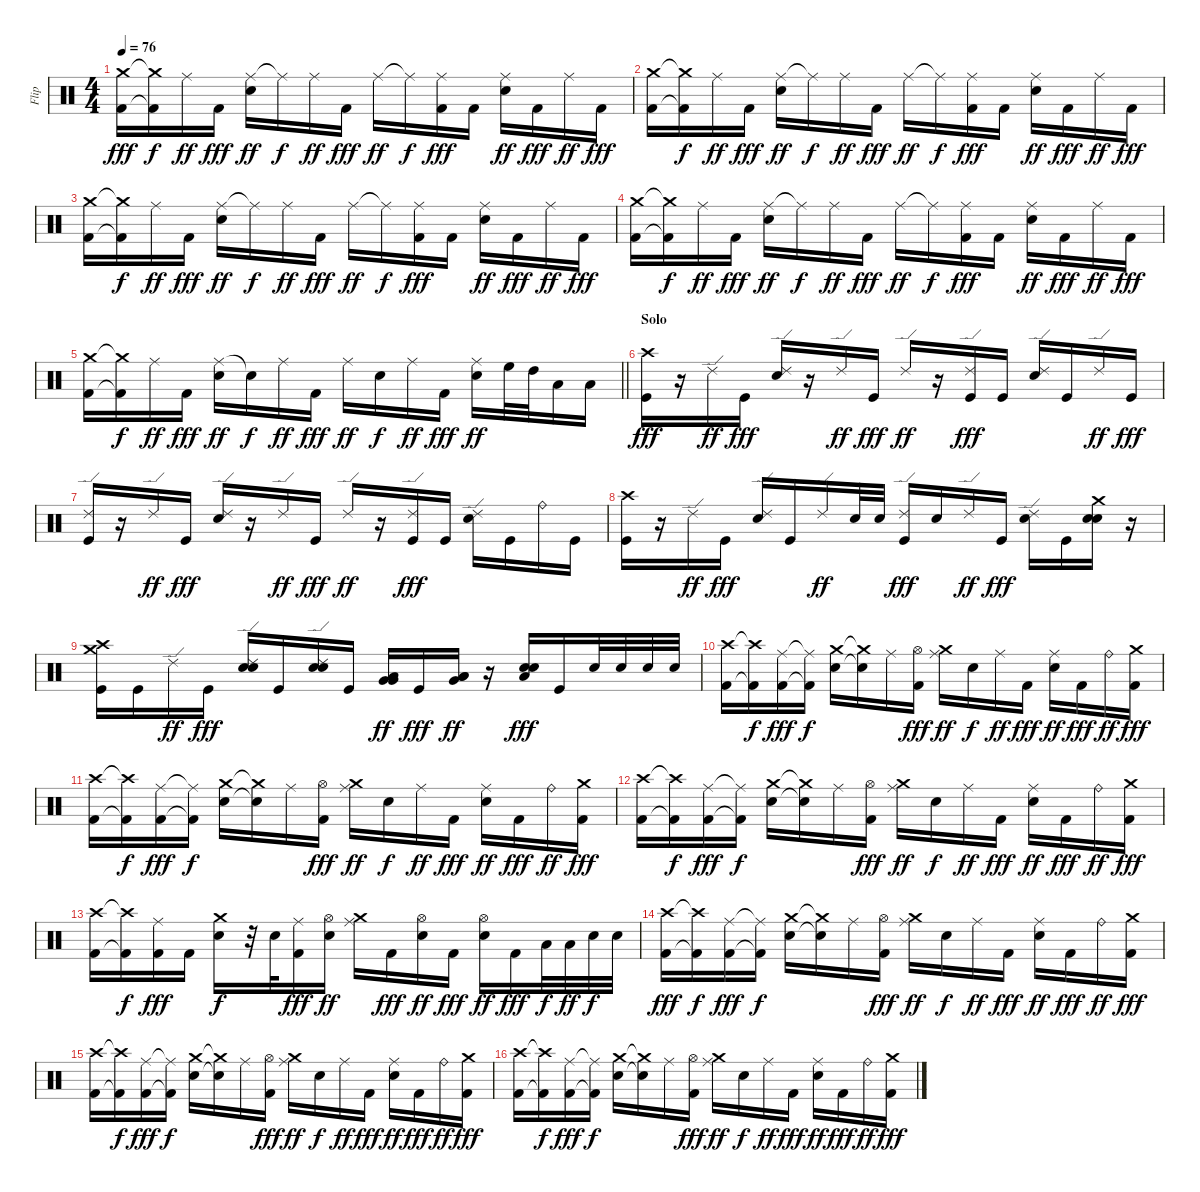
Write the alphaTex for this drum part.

\track ("Flip" "Flip") {instrument percussion}
\staff {score}
\articulation defaults
\ts (4 4)
\tempo 76
\clef neutral
\ks c
("Crash medium (hit)" "Kick (hit) 2").16{dy fff} ("Crash medium (hit)"{t} "Kick (hit) 2"{t}).16{dy f} "Ride (middle)".16{dy ff} "Kick (hit) 2".16{dy fff} ("Ride (middle)" "Snare (hit) 2").16{dy ff} "Ride (middle)"{t}.16{dy f} "Ride (middle)".16{dy ff} "Kick (hit) 2".16{dy fff} "Ride (middle)".16{dy ff} "Ride (middle)"{t}.16{dy f} ("Ride (middle)" "Kick (hit) 2").16{dy fff} "Kick (hit) 2".16 ("Ride (middle)" "Snare (hit) 2").16{dy ff} "Kick (hit) 2".16{dy fff} "Ride (middle)".16{dy ff} "Kick (hit) 2".16{dy fff} |
("Crash medium (hit)" "Kick (hit) 2").16 ("Crash medium (hit)"{t} "Kick (hit) 2"{t}).16{dy f} "Ride (middle)".16{dy ff} "Kick (hit) 2".16{dy fff} ("Ride (middle)" "Snare (hit) 2").16{dy ff} "Ride (middle)"{t}.16{dy f} "Ride (middle)".16{dy ff} "Kick (hit) 2".16{dy fff} "Ride (middle)".16{dy ff} "Ride (middle)"{t}.16{dy f} ("Ride (middle)" "Kick (hit) 2").16{dy fff} "Kick (hit) 2".16 ("Ride (middle)" "Snare (hit) 2").16{dy ff} "Kick (hit) 2".16{dy fff} "Ride (middle)".16{dy ff} "Kick (hit) 2".16{dy fff} |
("Crash medium (hit)" "Kick (hit) 2").16 ("Crash medium (hit)"{t} "Kick (hit) 2"{t}).16{dy f} "Ride (middle)".16{dy ff} "Kick (hit) 2".16{dy fff} ("Ride (middle)" "Snare (hit) 2").16{dy ff} "Ride (middle)"{t}.16{dy f} "Ride (middle)".16{dy ff} "Kick (hit) 2".16{dy fff} "Ride (middle)".16{dy ff} "Ride (middle)"{t}.16{dy f} ("Ride (middle)" "Kick (hit) 2").16{dy fff} "Kick (hit) 2".16 ("Ride (middle)" "Snare (hit) 2").16{dy ff} "Kick (hit) 2".16{dy fff} "Ride (middle)".16{dy ff} "Kick (hit) 2".16{dy fff} |
("Crash medium (hit)" "Kick (hit) 2").16 ("Crash medium (hit)"{t} "Kick (hit) 2"{t}).16{dy f} "Ride (middle)".16{dy ff} "Kick (hit) 2".16{dy fff} ("Ride (middle)" "Snare (hit) 2").16{dy ff} "Ride (middle)"{t}.16{dy f} "Ride (middle)".16{dy ff} "Kick (hit) 2".16{dy fff} "Ride (middle)".16{dy ff} "Ride (middle)"{t}.16{dy f} ("Ride (middle)" "Kick (hit) 2").16{dy fff} "Kick (hit) 2".16 ("Ride (middle)" "Snare (hit) 2").16{dy ff} "Kick (hit) 2".16{dy fff} "Ride (middle)".16{dy ff} "Kick (hit) 2".16{dy fff} |
\barLineRight lightlight
("Crash medium (hit)" "Kick (hit) 2").16 ("Crash medium (hit)"{t} "Kick (hit) 2"{t}).16{dy f} "Ride (middle)".16{dy ff} "Kick (hit) 2".16{dy fff} ("Ride (middle)" "Snare (hit) 2").16{dy ff} "Snare (hit) 2"{t}.16{dy f} "Ride (middle)".16{dy ff} "Kick (hit) 2".16{dy fff} "Ride (middle)".16{dy ff} "Snare (hit) 2".16{dy f} "Ride (middle)".16{dy ff} "Kick (hit) 2".16{dy fff} ("Ride (middle)" "Snare (hit) 2").16{dy ff} "High Floor Tom (hit)".32 "High Tom (hit)".32 "Low Tom (hit)".16 "Low Tom (hit)".16 |
\section ("" "Solo")
("Crash high (hit)" "Kick (hit)").16{dy fff} r.16 "Ride (edge) 2".16{dy ff} "Kick (hit)".16{dy fff} ("Ride (edge) 2" "Electric Snare (hit)").16 r.16 "Ride (edge) 2".16{dy ff} "Kick (hit)".16{dy fff} "Ride (edge) 2".16{dy ff} r.16 ("Ride (edge) 2" "Kick (hit)").16{dy fff} "Kick (hit)".16 ("Ride (edge) 2" "Electric Snare (hit)").16 "Kick (hit)".16 "Ride (edge) 2".16{dy ff} "Kick (hit)".16{dy fff} |
("Ride (edge) 2" "Kick (hit)").16 r.16 "Ride (edge) 2".16{dy ff} "Kick (hit)".16{dy fff} ("Ride (edge) 2" "Electric Snare (hit)").16 r.16 "Ride (edge) 2".16{dy ff} "Kick (hit)".16{dy fff} "Ride (edge) 2".16{dy ff} r.16 ("Ride (edge) 2" "Kick (hit)").16{dy fff} "Kick (hit)".16 ("Ride (edge) 2" "Electric Snare (hit)").16 "Kick (hit)".16 "Ride (bell)".16 "Kick (hit)".16 |
("Crash high (hit)" "Kick (hit)").16 r.16 "Ride (edge) 2".16{dy ff} "Kick (hit)".16{dy fff} ("Ride (edge) 2" "Electric Snare (hit)").16 "Kick (hit)".16 "Ride (edge) 2".16{dy ff} "Electric Snare (hit)".32 "Electric Snare (hit)".32 ("Ride (edge) 2" "Kick (hit)").16{dy fff} "Electric Snare (hit)".16 "Ride (edge) 2".16{dy ff} "Kick (hit)".16{dy fff} ("Ride (edge) 2" "Electric Snare (hit)").16 "Kick (hit)".16 ("Crash medium (hit)" "Electric Snare (hit)" "Electric Snare (hit)").16 r.16 |
("Crash high (hit)" "Crash medium (hit)" "Kick (hit)").16 "Kick (hit)".16 "Ride (edge) 2".16{dy ff} "Kick (hit)".16{dy fff} ("Ride (edge) 2" "Electric Snare (hit)" "Electric Snare (hit)").16 "Kick (hit)".16 ("Ride (edge) 2" "Electric Snare (hit)" "Electric Snare (hit)").16 "Kick (hit)".16 ("Very Low Tom (hit)" "Very Low Tom (hit)" "Low Floor Tom (hit)").16{dy ff} "Kick (hit)".16{dy fff} ("Low Floor Tom (hit)" "Very Low Tom (hit)" "Low Floor Tom (hit)").16{dy ff} r.16 ("Electric Snare (hit)" "Low Floor Tom (hit)" "Electric Snare (hit)").16{dy fff} "Kick (hit)".16 "Electric Snare (hit)".32 "Electric Snare (hit)".32 "Electric Snare (hit)".32 "Electric Snare (hit)".32 |
("Crash high (hit)" "Kick (hit) 2").16 ("Crash high (hit)"{t} "Kick (hit) 2"{t}).16{dy f} ("Ride (middle)" "Kick (hit) 2").16{dy fff} ("Ride (middle)"{t} "Kick (hit) 2"{t}).16{dy f} ("Crash medium (hit)" "Snare (hit) 2").16 ("Crash medium (hit)"{t} "Snare (hit) 2"{t}).16 "Ride (middle)".16 ("Hi-Hat (open)" "Kick (hit) 2").16{dy fff} ("Crash medium (hit)" "Ride (middle)").16{dy ff} "Snare (hit) 2".16{dy f} "Ride (middle)".16{dy ff} "Kick (hit) 2".16{dy fff} ("Ride (middle)" "Snare (hit) 2").16{dy ff} "Kick (hit) 2".16{dy fff} "Ride (bell)".16{dy ff} ("Crash medium (hit)" "Kick (hit) 2").16{dy fff} |
("Crash high (hit)" "Kick (hit) 2").16 ("Crash high (hit)"{t} "Kick (hit) 2"{t}).16{dy f} ("Ride (middle)" "Kick (hit) 2").16{dy fff} ("Ride (middle)"{t} "Kick (hit) 2"{t}).16{dy f} ("Crash medium (hit)" "Snare (hit) 2").16 ("Crash medium (hit)"{t} "Snare (hit) 2"{t}).16 "Ride (middle)".16 ("Hi-Hat (open)" "Kick (hit) 2").16{dy fff} ("Crash medium (hit)" "Ride (middle)").16{dy ff} "Snare (hit) 2".16{dy f} "Ride (middle)".16{dy ff} "Kick (hit) 2".16{dy fff} ("Ride (middle)" "Snare (hit) 2").16{dy ff} "Kick (hit) 2".16{dy fff} "Ride (bell)".16{dy ff} ("Crash medium (hit)" "Kick (hit) 2").16{dy fff} |
("Crash high (hit)" "Kick (hit) 2").16 ("Crash high (hit)"{t} "Kick (hit) 2"{t}).16{dy f} ("Ride (middle)" "Kick (hit) 2").16{dy fff} ("Ride (middle)"{t} "Kick (hit) 2"{t}).16{dy f} ("Crash medium (hit)" "Snare (hit) 2").16 ("Crash medium (hit)"{t} "Snare (hit) 2"{t}).16 "Ride (middle)".16 ("Hi-Hat (open)" "Kick (hit) 2").16{dy fff} ("Crash medium (hit)" "Ride (middle)").16{dy ff} "Snare (hit) 2".16{dy f} "Ride (middle)".16{dy ff} "Kick (hit) 2".16{dy fff} ("Ride (middle)" "Snare (hit) 2").16{dy ff} "Kick (hit) 2".16{dy fff} "Ride (bell)".16{dy ff} ("Crash medium (hit)" "Kick (hit) 2").16{dy fff} |
("Crash high (hit)" "Kick (hit) 2").16 ("Crash high (hit)"{t} "Kick (hit) 2"{t}).16{dy f} ("Ride (middle)" "Kick (hit) 2").16{dy fff} "Kick (hit) 2".16 ("Crash medium (hit)" "Snare (hit) 2").16{dy f} r.32 "Snare (hit) 2".32 ("Ride (middle)" "Kick (hit) 2").16{dy fff} ("Hi-Hat (open)" "Snare (hit) 2").16{dy ff} ("Crash medium (hit)" "Ride (middle)").16 "Kick (hit) 2".16{dy fff} ("Hi-Hat (open)" "Snare (hit) 2").16{dy ff} "Kick (hit) 2".16{dy fff} ("Hi-Hat (open)" "Snare (hit) 2").16{dy ff} "Kick (hit) 2".16{dy fff} "Low Tom (hit)".32{dy f} "Low Tom (hit)".32{dy ff} "Snare (hit) 2".32{dy f} "Snare (hit) 2".32 |
("Crash high (hit)" "Kick (hit) 2").16{dy fff} ("Crash high (hit)"{t} "Kick (hit) 2"{t}).16{dy f} ("Ride (middle)" "Kick (hit) 2").16{dy fff} ("Ride (middle)"{t} "Kick (hit) 2"{t}).16{dy f} ("Crash medium (hit)" "Snare (hit) 2").16 ("Crash medium (hit)"{t} "Snare (hit) 2"{t}).16 "Ride (middle)".16 ("Hi-Hat (open)" "Kick (hit) 2").16{dy fff} ("Crash medium (hit)" "Ride (middle)").16{dy ff} "Snare (hit) 2".16{dy f} "Ride (middle)".16{dy ff} "Kick (hit) 2".16{dy fff} ("Ride (middle)" "Snare (hit) 2").16{dy ff} "Kick (hit) 2".16{dy fff} "Ride (bell)".16{dy ff} ("Crash medium (hit)" "Kick (hit) 2").16{dy fff} |
("Crash high (hit)" "Kick (hit) 2").16 ("Crash high (hit)"{t} "Kick (hit) 2"{t}).16{dy f} ("Ride (middle)" "Kick (hit) 2").16{dy fff} ("Ride (middle)"{t} "Kick (hit) 2"{t}).16{dy f} ("Crash medium (hit)" "Snare (hit) 2").16 ("Crash medium (hit)"{t} "Snare (hit) 2"{t}).16 "Ride (middle)".16 ("Hi-Hat (open)" "Kick (hit) 2").16{dy fff} ("Crash medium (hit)" "Ride (middle)").16{dy ff} "Snare (hit) 2".16{dy f} "Ride (middle)".16{dy ff} "Kick (hit) 2".16{dy fff} ("Ride (middle)" "Snare (hit) 2").16{dy ff} "Kick (hit) 2".16{dy fff} "Ride (bell)".16{dy ff} ("Crash medium (hit)" "Kick (hit) 2").16{dy fff} |
("Crash high (hit)" "Kick (hit) 2").16 ("Crash high (hit)"{t} "Kick (hit) 2"{t}).16{dy f} ("Ride (middle)" "Kick (hit) 2").16{dy fff} ("Ride (middle)"{t} "Kick (hit) 2"{t}).16{dy f} ("Crash medium (hit)" "Snare (hit) 2").16 ("Crash medium (hit)"{t} "Snare (hit) 2"{t}).16 "Ride (middle)".16 ("Hi-Hat (open)" "Kick (hit) 2").16{dy fff} ("Crash medium (hit)" "Ride (middle)").16{dy ff} "Snare (hit) 2".16{dy f} "Ride (middle)".16{dy ff} "Kick (hit) 2".16{dy fff} ("Ride (middle)" "Snare (hit) 2").16{dy ff} "Kick (hit) 2".16{dy fff} "Ride (bell)".16{dy ff} ("Crash medium (hit)" "Kick (hit) 2").16{dy fff}
